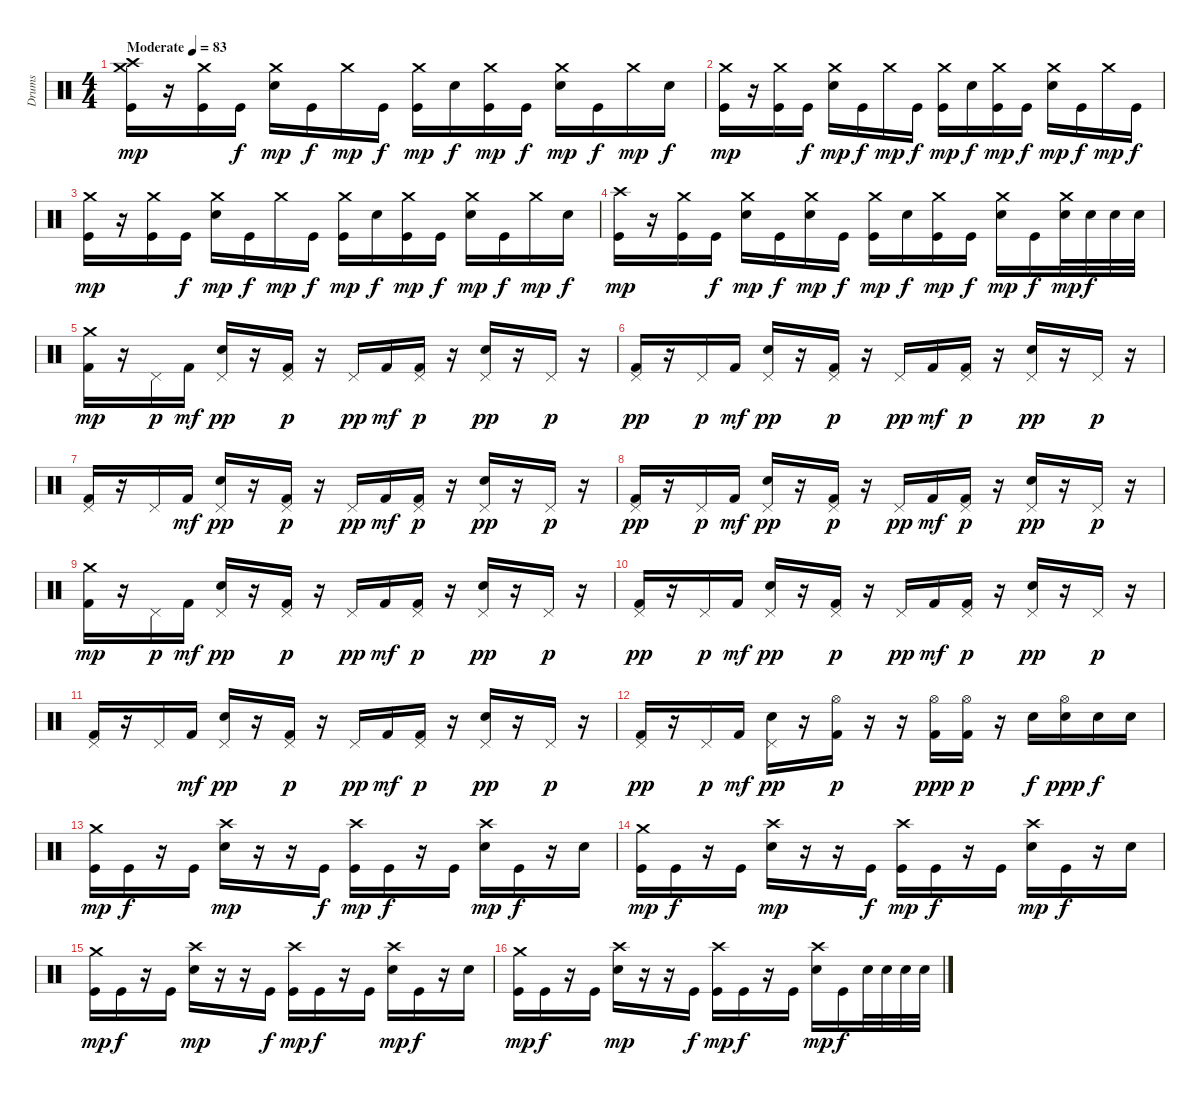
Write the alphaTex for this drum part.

\track ("Drums" "Drums") {instrument percussion}
\staff {score}
\articulation defaults
\ts (4 4)
\tempo (83 "Moderate")
\clef neutral
\ks c
("Kick (hit)" "Crash medium (hit)" "Crash high (hit)").16{dy mp} r.16 ("Kick (hit)" "Crash medium (hit)").16 "Kick (hit)".16{dy f} ("Snare (hit) 2" "Crash medium (hit)").16{dy mp} "Kick (hit)".16{dy f} "Crash medium (hit)".16{dy mp} "Kick (hit)".16{dy f} ("Kick (hit)" "Crash medium (hit)").16{dy mp} "Snare (hit) 2".16{dy f} ("Kick (hit)" "Crash medium (hit)").16{dy mp} "Kick (hit)".16{dy f} ("Snare (hit) 2" "Crash medium (hit)").16{dy mp} "Kick (hit)".16{dy f} "Crash medium (hit)".16{dy mp} "Snare (hit) 2".16{dy f} |
("Kick (hit)" "Crash medium (hit)").16{dy mp} r.16 ("Kick (hit)" "Crash medium (hit)").16 "Kick (hit)".16{dy f} ("Snare (hit) 2" "Crash medium (hit)").16{dy mp} "Kick (hit)".16{dy f} "Crash medium (hit)".16{dy mp} "Kick (hit)".16{dy f} ("Kick (hit)" "Crash medium (hit)").16{dy mp} "Snare (hit) 2".16{dy f} ("Kick (hit)" "Crash medium (hit)").16{dy mp} "Kick (hit)".16{dy f} ("Snare (hit) 2" "Crash medium (hit)").16{dy mp} "Kick (hit)".16{dy f} "Crash medium (hit)".16{dy mp} "Kick (hit)".16{dy f} |
("Kick (hit)" "Crash medium (hit)").16{dy mp} r.16 ("Kick (hit)" "Crash medium (hit)").16 "Kick (hit)".16{dy f} ("Snare (hit) 2" "Crash medium (hit)").16{dy mp} "Kick (hit)".16{dy f} "Crash medium (hit)".16{dy mp} "Kick (hit)".16{dy f} ("Kick (hit)" "Crash medium (hit)").16{dy mp} "Snare (hit) 2".16{dy f} ("Kick (hit)" "Crash medium (hit)").16{dy mp} "Kick (hit)".16{dy f} ("Snare (hit) 2" "Crash medium (hit)").16{dy mp} "Kick (hit)".16{dy f} "Crash medium (hit)".16{dy mp} "Snare (hit) 2".16{dy f} |
("Kick (hit)" "Crash high (hit)").16{dy mp} r.16 ("Kick (hit)" "Crash medium (hit)").16 "Kick (hit)".16{dy f} ("Snare (hit) 2" "Crash medium (hit)").16{dy mp} "Kick (hit)".16{dy f} ("Snare (hit) 2" "Crash medium (hit)").16{dy mp} "Kick (hit)".16{dy f} ("Kick (hit)" "Crash medium (hit)").16{dy mp} "Snare (hit) 2".16{dy f} ("Kick (hit)" "Crash medium (hit)").16{dy mp} "Kick (hit)".16{dy f} ("Snare (hit) 2" "Crash medium (hit)").16{dy mp} "Kick (hit)".16{dy f} ("Snare (hit) 2" "Crash medium (hit)").32{dy mp} "Snare (hit) 2".32{dy f} "Snare (hit) 2".32 "Snare (hit) 2".32 |
("Kick (hit) 2" "Crash medium (hit)").16{dy mp} r.16 "Pedal Hi-Hat (hit)".16{dy p} "Kick (hit) 2".16{dy mf} ("Snare (hit) 2" "Pedal Hi-Hat (hit)").16{dy pp} r.16 ("Kick (hit) 2" "Pedal Hi-Hat (hit)").16{dy p} r.16 "Pedal Hi-Hat (hit)".16{dy pp} "Kick (hit) 2".16{dy mf} ("Kick (hit) 2" "Pedal Hi-Hat (hit)").16{dy p} r.16 ("Snare (hit) 2" "Pedal Hi-Hat (hit)").16{dy pp} r.16 "Pedal Hi-Hat (hit)".16{dy p} r.16 |
("Kick (hit) 2" "Pedal Hi-Hat (hit)").16{dy pp} r.16 "Pedal Hi-Hat (hit)".16{dy p} "Kick (hit) 2".16{dy mf} ("Snare (hit) 2" "Pedal Hi-Hat (hit)").16{dy pp} r.16 ("Kick (hit) 2" "Pedal Hi-Hat (hit)").16{dy p} r.16 "Pedal Hi-Hat (hit)".16{dy pp} "Kick (hit) 2".16{dy mf} ("Kick (hit) 2" "Pedal Hi-Hat (hit)").16{dy p} r.16 ("Snare (hit) 2" "Pedal Hi-Hat (hit)").16{dy pp} r.16 "Pedal Hi-Hat (hit)".16{dy p} r.16 |
("Kick (hit) 2" "Pedal Hi-Hat (hit)").16 r.16 "Pedal Hi-Hat (hit)".16 "Kick (hit) 2".16{dy mf} ("Snare (hit) 2" "Pedal Hi-Hat (hit)").16{dy pp} r.16 ("Kick (hit) 2" "Pedal Hi-Hat (hit)").16{dy p} r.16 "Pedal Hi-Hat (hit)".16{dy pp} "Kick (hit) 2".16{dy mf} ("Kick (hit) 2" "Pedal Hi-Hat (hit)").16{dy p} r.16 ("Snare (hit) 2" "Pedal Hi-Hat (hit)").16{dy pp} r.16 "Pedal Hi-Hat (hit)".16{dy p} r.16 |
("Kick (hit) 2" "Pedal Hi-Hat (hit)").16{dy pp} r.16 "Pedal Hi-Hat (hit)".16{dy p} "Kick (hit) 2".16{dy mf} ("Snare (hit) 2" "Pedal Hi-Hat (hit)").16{dy pp} r.16 ("Kick (hit) 2" "Pedal Hi-Hat (hit)").16{dy p} r.16 "Pedal Hi-Hat (hit)".16{dy pp} "Kick (hit) 2".16{dy mf} ("Kick (hit) 2" "Pedal Hi-Hat (hit)").16{dy p} r.16 ("Snare (hit) 2" "Pedal Hi-Hat (hit)").16{dy pp} r.16 "Pedal Hi-Hat (hit)".16{dy p} r.16 |
("Kick (hit) 2" "Crash medium (hit)").16{dy mp} r.16 "Pedal Hi-Hat (hit)".16{dy p} "Kick (hit) 2".16{dy mf} ("Snare (hit) 2" "Pedal Hi-Hat (hit)").16{dy pp} r.16 ("Kick (hit) 2" "Pedal Hi-Hat (hit)").16{dy p} r.16 "Pedal Hi-Hat (hit)".16{dy pp} "Kick (hit) 2".16{dy mf} ("Kick (hit) 2" "Pedal Hi-Hat (hit)").16{dy p} r.16 ("Snare (hit) 2" "Pedal Hi-Hat (hit)").16{dy pp} r.16 "Pedal Hi-Hat (hit)".16{dy p} r.16 |
("Kick (hit) 2" "Pedal Hi-Hat (hit)").16{dy pp} r.16 "Pedal Hi-Hat (hit)".16{dy p} "Kick (hit) 2".16{dy mf} ("Snare (hit) 2" "Pedal Hi-Hat (hit)").16{dy pp} r.16 ("Kick (hit) 2" "Pedal Hi-Hat (hit)").16{dy p} r.16 "Pedal Hi-Hat (hit)".16{dy pp} "Kick (hit) 2".16{dy mf} ("Kick (hit) 2" "Pedal Hi-Hat (hit)").16{dy p} r.16 ("Snare (hit) 2" "Pedal Hi-Hat (hit)").16{dy pp} r.16 "Pedal Hi-Hat (hit)".16{dy p} r.16 |
("Kick (hit) 2" "Pedal Hi-Hat (hit)").16 r.16 "Pedal Hi-Hat (hit)".16 "Kick (hit) 2".16{dy mf} ("Snare (hit) 2" "Pedal Hi-Hat (hit)").16{dy pp} r.16 ("Kick (hit) 2" "Pedal Hi-Hat (hit)").16{dy p} r.16 "Pedal Hi-Hat (hit)".16{dy pp} "Kick (hit) 2".16{dy mf} ("Kick (hit) 2" "Pedal Hi-Hat (hit)").16{dy p} r.16 ("Snare (hit) 2" "Pedal Hi-Hat (hit)").16{dy pp} r.16 "Pedal Hi-Hat (hit)".16{dy p} r.16 |
("Kick (hit) 2" "Pedal Hi-Hat (hit)").16{dy pp} r.16 "Pedal Hi-Hat (hit)".16{dy p} "Kick (hit) 2".16{dy mf} ("Snare (hit) 2" "Pedal Hi-Hat (hit)").16{dy pp} r.16 ("Kick (hit) 2" "Hi-Hat (open)").16{dy p} r.16 r.16 ("Kick (hit) 2" "Hi-Hat (open)").16{dy ppp} ("Kick (hit) 2" "Hi-Hat (open)").16{dy p} r.16 "Snare (hit) 2".16{dy f} ("Snare (hit) 2" "Hi-Hat (open)").16{dy ppp} "Snare (hit) 2".16{dy f} "Snare (hit) 2".16 |
("Kick (hit)" "Crash medium (hit)").16{dy mp} "Kick (hit)".16{dy f} r.16 "Kick (hit)".16 ("Snare (hit) 2" "Crash high (hit)").16{dy mp} r.16 r.16 "Kick (hit)".16{dy f} ("Kick (hit)" "Crash high (hit)").16{dy mp} "Kick (hit)".16{dy f} r.16 "Kick (hit)".16 ("Snare (hit) 2" "Crash high (hit)").16{dy mp} "Kick (hit)".16{dy f} r.16 "Snare (hit) 2".16 |
("Kick (hit)" "Crash medium (hit)").16{dy mp} "Kick (hit)".16{dy f} r.16 "Kick (hit)".16 ("Snare (hit) 2" "Crash high (hit)").16{dy mp} r.16 r.16 "Kick (hit)".16{dy f} ("Kick (hit)" "Crash high (hit)").16{dy mp} "Kick (hit)".16{dy f} r.16 "Kick (hit)".16 ("Snare (hit) 2" "Crash high (hit)").16{dy mp} "Kick (hit)".16{dy f} r.16 "Snare (hit) 2".16 |
("Kick (hit)" "Crash medium (hit)").16{dy mp} "Kick (hit)".16{dy f} r.16 "Kick (hit)".16 ("Snare (hit) 2" "Crash high (hit)").16{dy mp} r.16 r.16 "Kick (hit)".16{dy f} ("Kick (hit)" "Crash high (hit)").16{dy mp} "Kick (hit)".16{dy f} r.16 "Kick (hit)".16 ("Snare (hit) 2" "Crash high (hit)").16{dy mp} "Kick (hit)".16{dy f} r.16 "Snare (hit) 2".16 |
("Kick (hit)" "Crash medium (hit)").16{dy mp} "Kick (hit)".16{dy f} r.16 "Kick (hit)".16 ("Snare (hit) 2" "Crash high (hit)").16{dy mp} r.16 r.16 "Kick (hit)".16{dy f} ("Kick (hit)" "Crash high (hit)").16{dy mp} "Kick (hit)".16{dy f} r.16 "Kick (hit)".16 ("Snare (hit) 2" "Crash high (hit)").16{dy mp} "Kick (hit)".16{dy f} "Snare (hit) 2".32 "Snare (hit) 2".32 "Snare (hit) 2".32 "Snare (hit) 2".32
